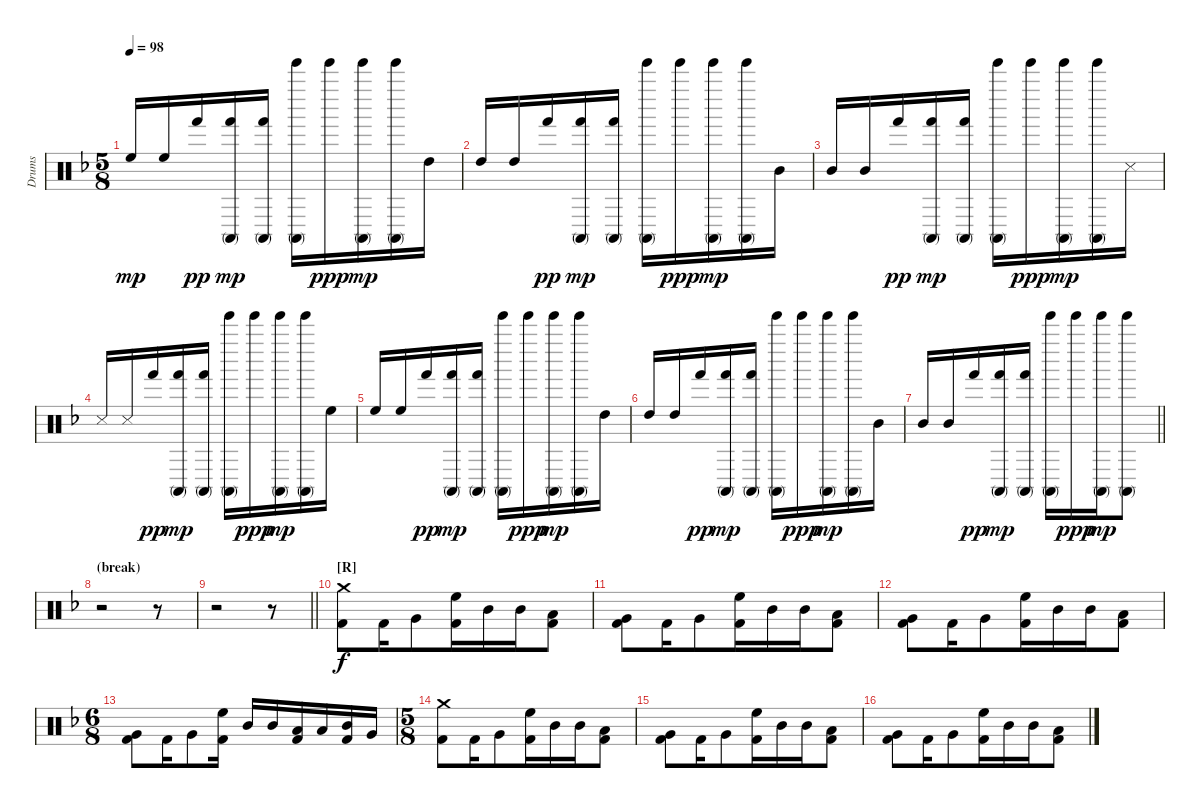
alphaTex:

\track ("Drums" "Drums") {instrument percussion}
\staff {score}
\articulation defaults
\ts (5 8)
\tempo 98
\clef neutral
\ks dminor "High Floor Tom (hit)".16{dy mp} "High Floor Tom (hit)".16{beam merge} "Hand (hit)".16{dy pp}
("Hand (hit)" "Conga high (mute)").16{dy mp beam merge} ("Hand (hit)" "Conga high (mute)").16{beam split} ("Tinkle Bell (hit)" "Conga high (mute)").16{beam merge} "Tinkle Bell (hit)".16{dy ppp} ("Tinkle Bell (hit)" "Conga high (mute)").16{dy mp beam merge} ("Tinkle Bell (hit)" "Conga high (mute)").16 "High Tom (hit)".16 |
"High Tom (hit)".16 "High Tom (hit)".16{beam merge} "Hand (hit)".16{dy pp} ("Hand (hit)" "Conga high (mute)").16{dy mp beam merge} ("Hand (hit)" "Conga high (mute)").16{beam split} ("Tinkle Bell (hit)" "Conga high (mute)").16{beam merge} "Tinkle Bell (hit)".16{dy ppp} ("Tinkle Bell (hit)" "Conga high (mute)").16{dy mp beam merge} ("Tinkle Bell (hit)" "Conga high (mute)").16 "Mid Tom (hit)".16 |
"Mid Tom (hit)".16 "Mid Tom (hit)".16{beam merge} "Hand (hit)".16{dy pp} ("Hand (hit)" "Conga high (mute)").16{dy mp beam merge} ("Hand (hit)" "Conga high (mute)").16{beam split} ("Tinkle Bell (hit)" "Conga high (mute)").16{beam merge} "Tinkle Bell (hit)".16{dy ppp} ("Tinkle Bell (hit)" "Conga high (mute)").16{dy mp beam merge} ("Tinkle Bell (hit)" "Conga high (mute)").16 "Snare (side stick) 3".16 |
"Snare (side stick) 3".16 "Snare (side stick) 3".16{beam merge} "Hand (hit)".16{dy pp} ("Hand (hit)" "Conga high (mute)").16{dy mp beam merge} ("Hand (hit)" "Conga high (mute)").16{beam split} ("Tinkle Bell (hit)" "Conga high (mute)").16{beam merge} "Tinkle Bell (hit)".16{dy ppp} ("Tinkle Bell (hit)" "Conga high (mute)").16{dy mp beam merge} ("Tinkle Bell (hit)" "Conga high (mute)").16 "High Floor Tom (hit)".16 |
"High Floor Tom (hit)".16 "High Floor Tom (hit)".16{beam merge} "Hand (hit)".16{dy pp} ("Hand (hit)" "Conga high (mute)").16{dy mp beam merge} ("Hand (hit)" "Conga high (mute)").16{beam split} ("Tinkle Bell (hit)" "Conga high (mute)").16{beam merge} "Tinkle Bell (hit)".16{dy ppp} ("Tinkle Bell (hit)" "Conga high (mute)").16{dy mp beam merge} ("Tinkle Bell (hit)" "Conga high (mute)").16 "High Tom (hit)".16 |
"High Tom (hit)".16 "High Tom (hit)".16{beam merge} "Hand (hit)".16{dy pp} ("Hand (hit)" "Conga high (mute)").16{dy mp beam merge} ("Hand (hit)" "Conga high (mute)").16{beam split} ("Tinkle Bell (hit)" "Conga high (mute)").16{beam merge} "Tinkle Bell (hit)".16{dy ppp} ("Tinkle Bell (hit)" "Conga high (mute)").16{dy mp beam merge} ("Tinkle Bell (hit)" "Conga high (mute)").16 "Mid Tom (hit)".16 |
\barLineRight lightlight "Mid Tom (hit)".16 "Mid Tom (hit)".16{beam merge} "Hand (hit)".16{dy pp}
("Hand (hit)" "Conga high (mute)").16{dy mp beam merge} ("Hand (hit)" "Conga high (mute)").16{beam split} ("Tinkle Bell (hit)" "Conga high (mute)").16{beam merge} "Tinkle Bell (hit)".16{dy ppp} ("Tinkle Bell (hit)" "Conga high (mute)").16{dy mp beam merge} ("Tinkle Bell (hit)" "Conga high (mute)").8 |
\section ("" "(break)")
r.2 r.8 |
\barLineRight lightlight
r.2 r.8 |
\section ("" "[R]")
("Crash medium (hit)" "Kick (hit) 2").8{dy f beam merge} "Kick (hit) 2".16 "Very Low Tom (hit)".8 ("High Floor Tom (hit)" "Kick (hit) 2").16{beam merge} "Mid Tom (hit)".16 "Mid Tom (hit)".16{beam merge} ("Low Tom (hit)" "Kick (hit) 2").8 |
("Very Low Tom (hit)" "Kick (hit) 2").8{beam merge} "Kick (hit) 2".16 "Very Low Tom (hit)".8 ("High Floor Tom (hit)" "Kick (hit) 2").16{beam merge} "Mid Tom (hit)".16 "Mid Tom (hit)".16{beam merge} ("Low Tom (hit)" "Kick (hit) 2").8 |
("Very Low Tom (hit)" "Kick (hit) 2").8{beam merge} "Kick (hit) 2".16 "Very Low Tom (hit)".8 ("High Floor Tom (hit)" "Kick (hit) 2").16{beam merge} "Mid Tom (hit)".16 "Mid Tom (hit)".16{beam merge} ("Low Tom (hit)" "Kick (hit) 2").8 |
\ts (6 8)
("Very Low Tom (hit)" "Kick (hit) 2").8 "Kick (hit) 2".16 "Very Low Tom (hit)".8{beam merge} ("High Floor Tom (hit)" "Kick (hit) 2").16{beam split} "Mid Tom (hit)".16 "Mid Tom (hit)".16 ("Low Tom (hit)" "Kick (hit) 2").16 "Low Tom (hit)".16 ("Mid Tom (hit)" "Kick (hit) 2").16 "Very Low Tom (hit)".16 |
\ts (5 8)
("Crash medium (hit)" "Kick (hit) 2").8{beam merge} "Kick (hit) 2".16 "Very Low Tom (hit)".8 ("High Floor Tom (hit)" "Kick (hit) 2").16{beam merge} "Mid Tom (hit)".16 "Mid Tom (hit)".16{beam merge} ("Low Tom (hit)" "Kick (hit) 2").8 |
("Very Low Tom (hit)" "Kick (hit) 2").8{beam merge} "Kick (hit) 2".16 "Very Low Tom (hit)".8 ("High Floor Tom (hit)" "Kick (hit) 2").16{beam merge} "Mid Tom (hit)".16 "Mid Tom (hit)".16{beam merge} ("Low Tom (hit)" "Kick (hit) 2").8 |
("Very Low Tom (hit)" "Kick (hit) 2").8{beam merge} "Kick (hit) 2".16 "Very Low Tom (hit)".8 ("High Floor Tom (hit)" "Kick (hit) 2").16{beam merge} "Mid Tom (hit)".16 "Mid Tom (hit)".16{beam merge} ("Low Tom (hit)" "Kick (hit) 2").8
